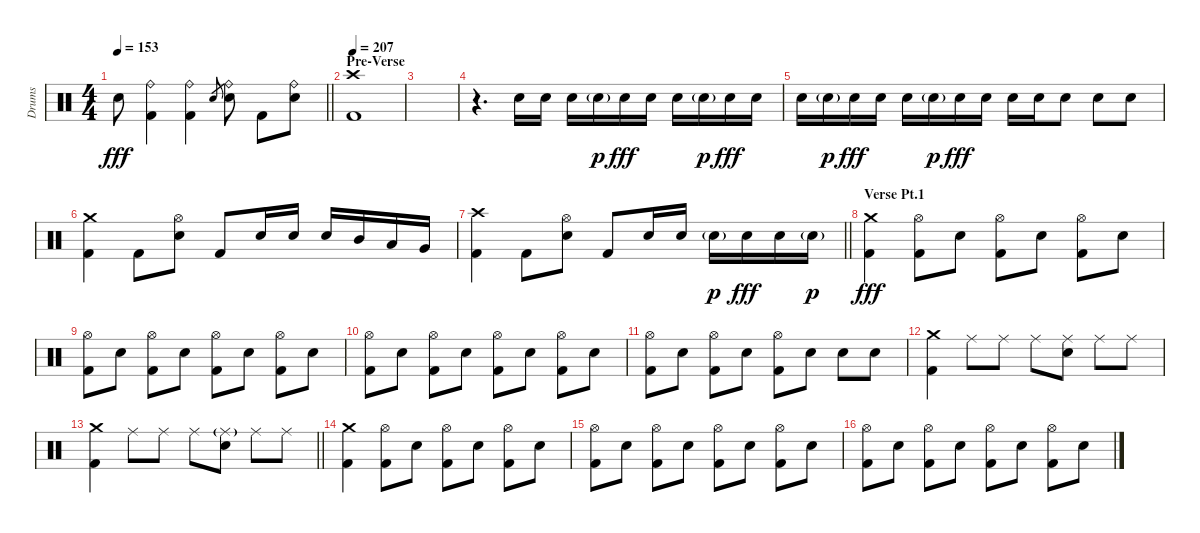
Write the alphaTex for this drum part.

\track ("Drums" "Drums") {instrument percussion}
\staff {score}
\articulation defaults
\ts (4 4)
\tempo 153
\clef neutral
\barLineRight lightlight
\ks c "Snare (hit)"{t}.8{dy fff}
("Ride (bell)" "Kick (hit) 2").4 ("Ride (bell)" "Kick (hit) 2").4 "Electric Snare (hit)".8{gr} ("Ride (bell)" "Electric Snare (hit)").8 "Kick (hit) 2".8 ("Ride (bell)" "Electric Snare (hit)").8 |
\section ("" "Pre-Verse")
\tempo 207
("Crash high (hit)" "Kick (hit) 2").1 |
|
r.4{d} "Electric Snare (hit)".16 "Electric Snare (hit)".16 "Electric Snare (hit)".16 "Electric Snare (hit)"{g}.16{dy p} "Electric Snare (hit)".16{dy fff} "Electric Snare (hit)".16 "Electric Snare (hit)".16 "Electric Snare (hit)"{g}.16{dy p} "Electric Snare (hit)".16{dy fff} "Electric Snare (hit)".16 |
"Electric Snare (hit)".16 "Electric Snare (hit)"{g}.16{dy p} "Electric Snare (hit)".16{dy fff} "Electric Snare (hit)".16 "Electric Snare (hit)".16 "Electric Snare (hit)"{g}.16{dy p} "Electric Snare (hit)".16{dy fff} "Electric Snare (hit)".16 "Electric Snare (hit)".16 "Electric Snare (hit)".16 "Electric Snare (hit)".8 "Electric Snare (hit)".8 "Electric Snare (hit)".8 |
("Crash medium (hit)" "Kick (hit) 2").4 "Kick (hit) 2".8 ("Hi-Hat (open)" "Electric Snare (hit)").8 "Kick (hit) 2".8 "Electric Snare (hit)".16 "Electric Snare (hit)".16 "Electric Snare (hit)".16 "Mid Tom (hit)".16 "Low Tom (hit)".16 "Very Low Tom (hit)".16 |
\barLineRight lightlight
("Crash high (hit)" "Kick (hit) 2").4 "Kick (hit) 2".8 ("Hi-Hat (open)" "Electric Snare (hit)").8 "Kick (hit) 2".8 "Electric Snare (hit)".16 "Electric Snare (hit)".16 "Electric Snare (hit)"{g}.16{dy p} "Electric Snare (hit)".16{dy fff} "Electric Snare (hit)".16 "Electric Snare (hit)"{g}.16{dy p} |
\section ("" "Verse Pt.1")
("Crash medium (hit)" "Kick (hit) 2").4{dy fff} ("Hi-Hat (open)" "Kick (hit) 2").8 "Electric Snare (hit)".8 ("Hi-Hat (open)" "Kick (hit) 2").8 "Electric Snare (hit)".8 ("Hi-Hat (open)" "Kick (hit) 2").8 "Electric Snare (hit)".8 |
("Hi-Hat (open)" "Kick (hit) 2").8 "Electric Snare (hit)".8 ("Hi-Hat (open)" "Kick (hit) 2").8 "Electric Snare (hit)".8 ("Hi-Hat (open)" "Kick (hit) 2").8 "Electric Snare (hit)".8 ("Hi-Hat (open)" "Kick (hit) 2").8 "Electric Snare (hit)".8 |
("Hi-Hat (open)" "Kick (hit) 2").8 "Electric Snare (hit)".8 ("Hi-Hat (open)" "Kick (hit) 2").8 "Electric Snare (hit)".8 ("Hi-Hat (open)" "Kick (hit) 2").8 "Electric Snare (hit)".8 ("Hi-Hat (open)" "Kick (hit) 2").8 "Electric Snare (hit)".8 |
("Hi-Hat (open)" "Kick (hit) 2").8 "Electric Snare (hit)".8 ("Hi-Hat (open)" "Kick (hit) 2").8 "Electric Snare (hit)".8 ("Hi-Hat (open)" "Kick (hit) 2").8 "Electric Snare (hit)".8 "Electric Snare (hit)".8 "Electric Snare (hit)".8 |
("Crash medium (hit)" "Kick (hit) 2").4 "Ride (middle)".8 "Ride (middle)".8 "Ride (middle)".8 ("Ride (middle)" "Electric Snare (hit)").8 "Ride (middle)".8 "Ride (middle)".8 |
\barLineRight lightlight
("Crash medium (hit)" "Kick (hit) 2").4 "Ride (middle)".8 "Ride (middle)".8 "Ride (middle)".8 ("Ride (middle)"{g} "Electric Snare (hit)").8 "Ride (middle)".8 "Ride (middle)".8 |
("Crash medium (hit)" "Kick (hit) 2").4 ("Hi-Hat (open)" "Kick (hit) 2").8 "Electric Snare (hit)".8 ("Hi-Hat (open)" "Kick (hit) 2").8 "Electric Snare (hit)".8 ("Hi-Hat (open)" "Kick (hit) 2").8 "Electric Snare (hit)".8 |
("Hi-Hat (open)" "Kick (hit) 2").8 "Electric Snare (hit)".8 ("Hi-Hat (open)" "Kick (hit) 2").8 "Electric Snare (hit)".8 ("Hi-Hat (open)" "Kick (hit) 2").8 "Electric Snare (hit)".8 ("Hi-Hat (open)" "Kick (hit) 2").8 "Electric Snare (hit)".8 |
("Hi-Hat (open)" "Kick (hit) 2").8 "Electric Snare (hit)".8 ("Hi-Hat (open)" "Kick (hit) 2").8 "Electric Snare (hit)".8 ("Hi-Hat (open)" "Kick (hit) 2").8 "Electric Snare (hit)".8 ("Hi-Hat (open)" "Kick (hit) 2").8 "Electric Snare (hit)".8
